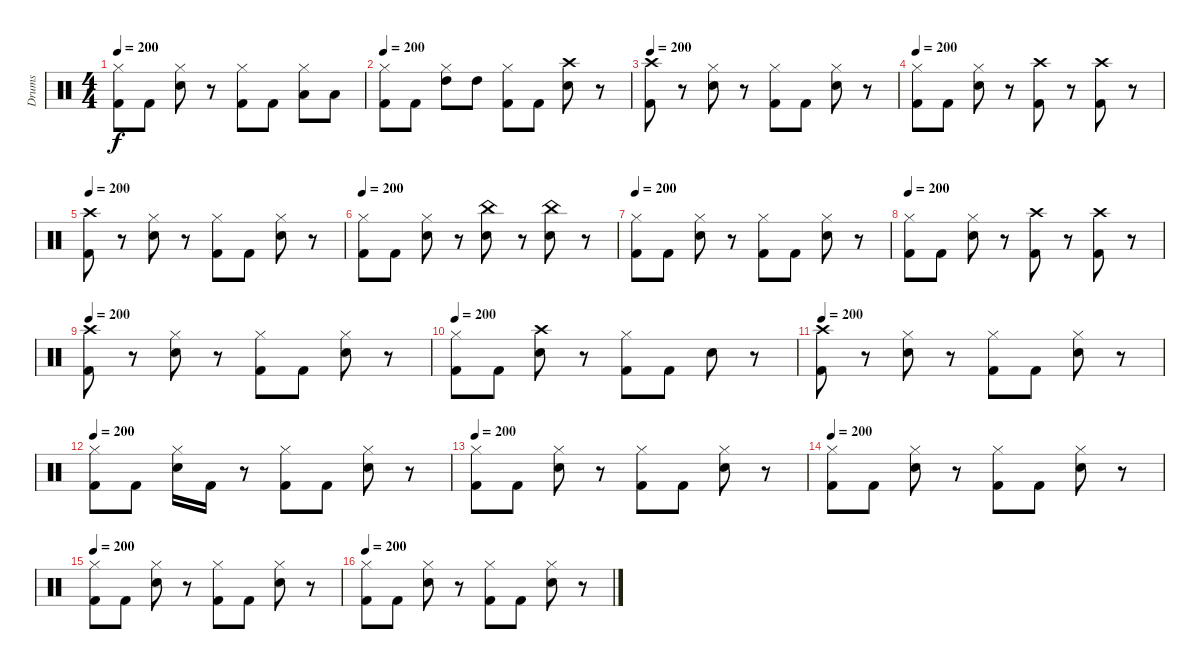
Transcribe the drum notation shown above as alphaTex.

\track ("Drums" "Drums") {instrument percussion}
\staff {score}
\articulation defaults
\ts (4 4)
\tempo 200
\clef neutral
\ks c
("Hi-Hat (closed)" "Kick (hit) 2").8{dy f} "Kick (hit) 2".8 ("Snare (hit) 2" "Hi-Hat (closed)").8 r.8 ("Hi-Hat (closed)" "Kick (hit) 2").8 "Kick (hit) 2".8 ("Low Tom (hit)" "Hi-Hat (closed)").8 "Low Tom (hit)".8 |
\tempo 200
("Hi-Hat (closed)" "Kick (hit) 2").8 "Kick (hit) 2".8 ("High Tom (hit)" "Hi-Hat (closed)").8 "High Tom (hit)".8 ("Kick (hit) 2" "Hi-Hat (closed)").8 "Kick (hit) 2".8 ("Crash high (hit)" "Snare (hit) 2").8 r.8 |
\tempo 200
("Kick (hit) 2" "Crash high (hit)").8 r.8 ("Hi-Hat (closed)" "Snare (hit) 2").8 r.8 ("Hi-Hat (closed)" "Kick (hit) 2").8 "Kick (hit) 2".8 ("Hi-Hat (closed)" "Snare (hit) 2").8 r.8 |
\tempo 200
("Hi-Hat (closed)" "Kick (hit) 2").8 "Kick (hit) 2".8 ("Snare (hit) 2" "Hi-Hat (closed)").8 r.8 ("Crash high (hit)" "Kick (hit) 2").8 r.8 ("Crash high (hit)" "Kick (hit) 2").8 r.8 |
\tempo 200
("Kick (hit) 2" "Crash high (hit)").8 r.8 ("Hi-Hat (closed)" "Snare (hit) 2").8 r.8 ("Kick (hit) 2" "Hi-Hat (closed)").8 "Kick (hit) 2".8 ("Snare (hit) 2" "Hi-Hat (closed)").8 r.8 |
\tempo 200
("Kick (hit) 2" "Hi-Hat (closed)").8 "Kick (hit) 2".8 ("Snare (hit) 2" "Hi-Hat (closed)").8 r.8 ("China (hit)" "Snare (hit) 2").8 r.8 ("China (hit)" "Snare (hit) 2").8 r.8 |
\tempo 200
("Hi-Hat (closed)" "Kick (hit) 2").8 "Kick (hit) 2".8 ("Hi-Hat (closed)" "Snare (hit) 2").8 r.8 ("Hi-Hat (closed)" "Kick (hit) 2").8 "Kick (hit) 2".8 ("Hi-Hat (closed)" "Snare (hit) 2").8 r.8 |
\tempo 200
("Hi-Hat (closed)" "Kick (hit) 2").8 "Kick (hit) 2".8 ("Snare (hit) 2" "Hi-Hat (closed)").8 r.8 ("Crash high (hit)" "Kick (hit) 2").8 r.8 ("Crash high (hit)" "Kick (hit) 2").8 r.8 |
\tempo 200
("Kick (hit) 2" "Crash high (hit)").8 r.8 ("Hi-Hat (closed)" "Snare (hit) 2").8 r.8 ("Kick (hit) 2" "Hi-Hat (closed)").8 "Kick (hit) 2".8 ("Snare (hit) 2" "Hi-Hat (closed)").8 r.8 |
\tempo 200
("Hi-Hat (closed)" "Kick (hit) 2").8 "Kick (hit) 2".8 ("Crash high (hit)" "Snare (hit) 2").8 r.8 ("Hi-Hat (closed)" "Kick (hit) 2").8 "Kick (hit) 2".8 "Snare (hit) 2".8 r.8 |
\tempo 200
("Kick (hit) 2" "Crash high (hit)").8 r.8 ("Hi-Hat (closed)" "Snare (hit) 2").8 r.8 ("Kick (hit) 2" "Hi-Hat (closed)").8 "Kick (hit) 2".8 ("Snare (hit) 2" "Hi-Hat (closed)").8 r.8 |
\tempo 200
("Kick (hit) 2" "Hi-Hat (closed)").8 "Kick (hit) 2".8 ("Snare (hit) 2" "Hi-Hat (closed)").16 "Kick (hit) 2".16 r.8 ("Kick (hit) 2" "Hi-Hat (closed)").8 "Kick (hit) 2".8 ("Snare (hit) 2" "Hi-Hat (closed)").8 r.8 |
\tempo 200
("Kick (hit) 2" "Hi-Hat (closed)").8 "Kick (hit) 2".8 ("Snare (hit) 2" "Hi-Hat (closed)").8 r.8 ("Kick (hit) 2" "Hi-Hat (closed)").8 "Kick (hit) 2".8 ("Snare (hit) 2" "Hi-Hat (closed)").8 r.8 |
\tempo 200
("Kick (hit) 2" "Hi-Hat (closed)").8 "Kick (hit) 2".8 ("Snare (hit) 2" "Hi-Hat (closed)").8 r.8 ("Kick (hit) 2" "Hi-Hat (closed)").8 "Kick (hit) 2".8 ("Snare (hit) 2" "Hi-Hat (closed)").8 r.8 |
\tempo 200
("Kick (hit) 2" "Hi-Hat (closed)").8 "Kick (hit) 2".8 ("Snare (hit) 2" "Hi-Hat (closed)").8 r.8 ("Kick (hit) 2" "Hi-Hat (closed)").8 "Kick (hit) 2".8 ("Snare (hit) 2" "Hi-Hat (closed)").8 r.8 |
\tempo 200
("Kick (hit) 2" "Hi-Hat (closed)").8 "Kick (hit) 2".8 ("Snare (hit) 2" "Hi-Hat (closed)").8 r.8 ("Kick (hit) 2" "Hi-Hat (closed)").8 "Kick (hit) 2".8 ("Snare (hit) 2" "Hi-Hat (closed)").8 r.8
